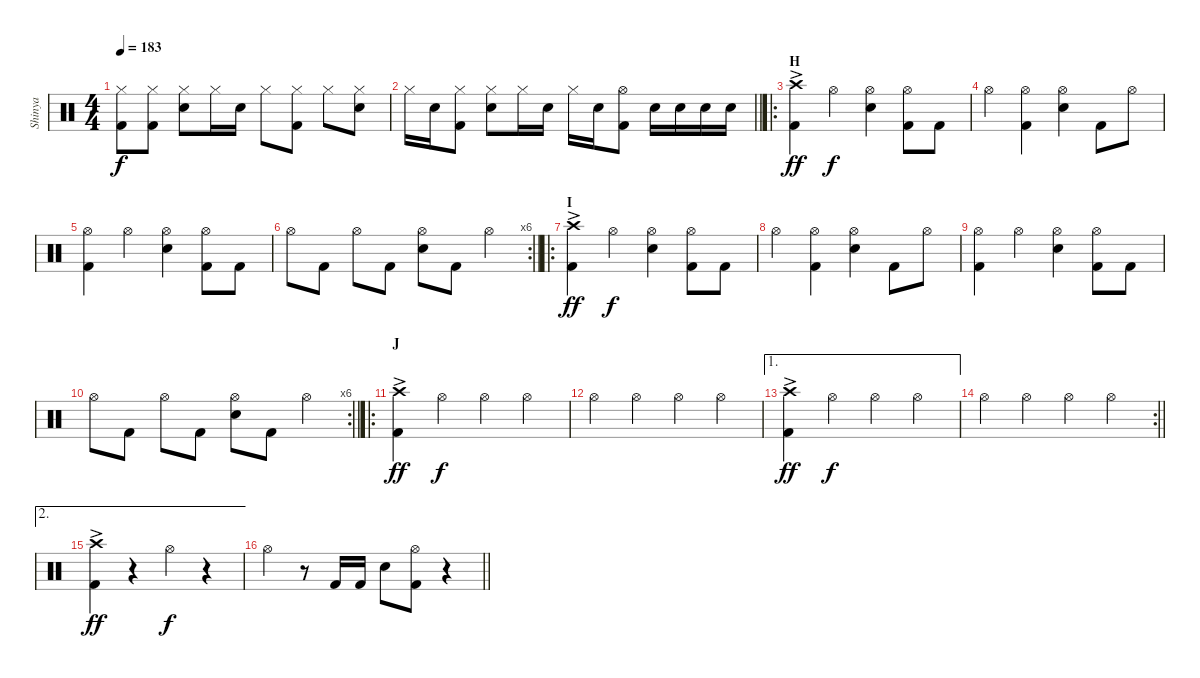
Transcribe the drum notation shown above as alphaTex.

\track ("Shinya" "Shinya") {instrument percussion}
\staff {score}
\articulation defaults
\ts (4 4)
\tempo 183
\clef neutral
\ks c
("Hi-Hat (closed)" "Kick (hit) 2").8{dy f} ("Hi-Hat (closed)" "Kick (hit) 2").8 ("Hi-Hat (closed)" "Snare (hit) 2").8 "Hi-Hat (closed)".16 "Snare (hit) 2".16 "Hi-Hat (closed)".8 ("Hi-Hat (closed)" "Kick (hit) 2").8 "Hi-Hat (closed)".8 ("Hi-Hat (closed)" "Snare (hit) 2").8 |
\barLineRight lightlight "Hi-Hat (closed)".16 "Snare (hit) 2".16
("Hi-Hat (closed)" "Kick (hit) 2").8 ("Hi-Hat (closed)" "Snare (hit) 2").8 "Hi-Hat (closed)".16 "Snare (hit) 2".16 "Hi-Hat (closed)".16 "Snare (hit) 2".16 ("Hi-Hat (open)" "Kick (hit) 2").8 "Snare (hit) 2".16 "Snare (hit) 2".16 "Snare (hit) 2".16 "Snare (hit) 2".16 |
\ro
\section ("" "H")
("Crash high (hit)"{ac} "Kick (hit) 2").4{dy ff} "Hi-Hat (open)".4{dy f} ("Hi-Hat (open)" "Snare (hit) 2").4 ("Hi-Hat (open)" "Kick (hit) 2").8 "Kick (hit) 2".8 |
"Hi-Hat (open)".4 ("Hi-Hat (open)" "Kick (hit) 2").4 ("Hi-Hat (open)" "Snare (hit) 2").4 "Kick (hit) 2".8 "Hi-Hat (open)".8 |
("Hi-Hat (open)" "Kick (hit) 2").4 "Hi-Hat (open)".4 ("Hi-Hat (open)" "Snare (hit) 2").4 ("Hi-Hat (open)" "Kick (hit) 2").8 "Kick (hit) 2".8 |
\rc 6
\barLineRight lightlight "Hi-Hat (open)".8 "Kick (hit) 2".8 "Hi-Hat (open)".8 "Kick (hit) 2".8
("Hi-Hat (open)" "Snare (hit) 2").8 "Kick (hit) 2".8 "Hi-Hat (open)".4 |
\ro
\section ("" "I")
("Crash high (hit)"{ac} "Kick (hit) 2").4{dy ff} "Hi-Hat (open)".4{dy f} ("Hi-Hat (open)" "Snare (hit) 2").4 ("Hi-Hat (open)" "Kick (hit) 2").8 "Kick (hit) 2".8 |
"Hi-Hat (open)".4 ("Hi-Hat (open)" "Kick (hit) 2").4 ("Hi-Hat (open)" "Snare (hit) 2").4 "Kick (hit) 2".8 "Hi-Hat (open)".8 |
("Hi-Hat (open)" "Kick (hit) 2").4 "Hi-Hat (open)".4 ("Hi-Hat (open)" "Snare (hit) 2").4 ("Hi-Hat (open)" "Kick (hit) 2").8 "Kick (hit) 2".8 |
\rc 6
\barLineRight lightlight "Hi-Hat (open)".8 "Kick (hit) 2".8 "Hi-Hat (open)".8 "Kick (hit) 2".8
("Hi-Hat (open)" "Snare (hit) 2").8 "Kick (hit) 2".8 "Hi-Hat (open)".4 |
\ro
\section ("" "J")
("Crash high (hit)"{ac} "Kick (hit) 2").4{dy ff} "Hi-Hat (open)".4{dy f} "Hi-Hat (open)".4 "Hi-Hat (open)".4 |
"Hi-Hat (open)".4 "Hi-Hat (open)".4 "Hi-Hat (open)".4 "Hi-Hat (open)".4 |
\ae 1
("Crash high (hit)"{ac} "Kick (hit) 2").4{dy ff} "Hi-Hat (open)".4{dy f} "Hi-Hat (open)".4 "Hi-Hat (open)".4 |
\rc 2
\barLineRight lightlight "Hi-Hat (open)".4 "Hi-Hat (open)".4 "Hi-Hat (open)".4 "Hi-Hat (open)".4
|
\ae 2
("Crash high (hit)"{ac} "Kick (hit) 2").4{dy ff} r.4 "Hi-Hat (open)".4{dy f} r.4 |
\barLineRight lightlight "Hi-Hat (open)".4
r.8 "Kick (hit) 2".16 "Kick (hit) 2".16 "Snare (hit) 2".8 ("Hi-Hat (open)" "Kick (hit) 2").8 r.4
